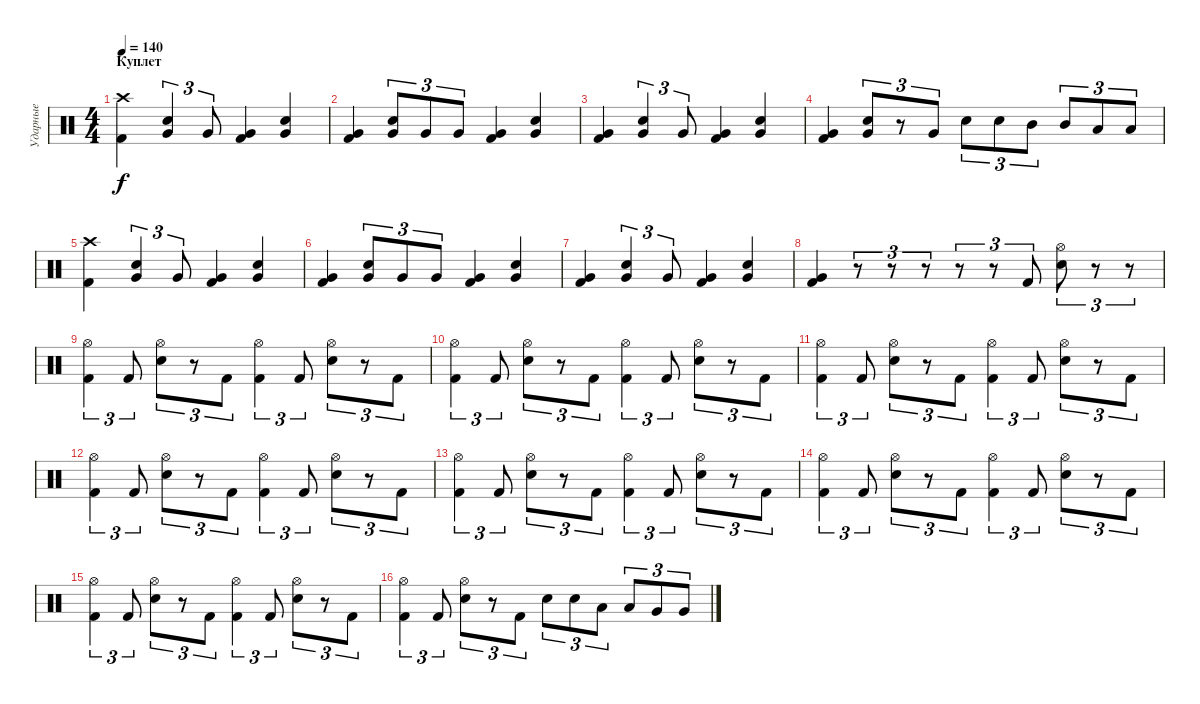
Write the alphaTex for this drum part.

\track ("Ударные" "Ударные") {instrument percussion}
\staff {score}
\articulation defaults
\ts (4 4)
\section ("" "Куплет")
\tempo 140
\clef neutral
\ks c
("Crash high (hit)" "Kick (hit) 2").4{dy f} ("Electric Snare (hit)" "Very Low Tom (hit)").4{tu (3 2)} "Very Low Tom (hit)".8{tu (3 2)} ("Very Low Tom (hit)" "Kick (hit) 2").4 ("Electric Snare (hit)" "Very Low Tom (hit)").4 |
("Very Low Tom (hit)" "Kick (hit) 2").4 ("Electric Snare (hit)" "Very Low Tom (hit)").8{tu (3 2)} "Very Low Tom (hit)".8{tu (3 2)} "Very Low Tom (hit)".8{tu (3 2)} ("Very Low Tom (hit)" "Kick (hit) 2").4 ("Electric Snare (hit)" "Very Low Tom (hit)").4 |
("Very Low Tom (hit)" "Kick (hit) 2").4 ("Electric Snare (hit)" "Very Low Tom (hit)").4{tu (3 2)} "Very Low Tom (hit)".8{tu (3 2)} ("Very Low Tom (hit)" "Kick (hit) 2").4 ("Electric Snare (hit)" "Very Low Tom (hit)").4 |
("Very Low Tom (hit)" "Kick (hit) 2").4 ("Electric Snare (hit)" "Very Low Tom (hit)").8{tu (3 2)} r.8{tu (3 2)} "Very Low Tom (hit)".8{tu (3 2)} "Electric Snare (hit)".8{tu (3 2)} "Electric Snare (hit)".8{tu (3 2)} "Mid Tom (hit)".8{tu (3 2)} "Mid Tom (hit)".8{tu (3 2)} "Low Tom (hit)".8{tu (3 2)} "Low Tom (hit)".8{tu (3 2)} |
("Crash high (hit)" "Kick (hit) 2").4 ("Electric Snare (hit)" "Very Low Tom (hit)").4{tu (3 2)} "Very Low Tom (hit)".8{tu (3 2)} ("Very Low Tom (hit)" "Kick (hit) 2").4 ("Electric Snare (hit)" "Very Low Tom (hit)").4 |
("Very Low Tom (hit)" "Kick (hit) 2").4 ("Electric Snare (hit)" "Very Low Tom (hit)").8{tu (3 2)} "Very Low Tom (hit)".8{tu (3 2)} "Very Low Tom (hit)".8{tu (3 2)} ("Very Low Tom (hit)" "Kick (hit) 2").4 ("Electric Snare (hit)" "Very Low Tom (hit)").4 |
("Very Low Tom (hit)" "Kick (hit) 2").4 ("Electric Snare (hit)" "Very Low Tom (hit)").4{tu (3 2)} "Very Low Tom (hit)".8{tu (3 2)} ("Very Low Tom (hit)" "Kick (hit) 2").4 ("Electric Snare (hit)" "Very Low Tom (hit)").4 |
("Very Low Tom (hit)" "Kick (hit) 2").4 r.8{tu (3 2)} r.8{tu (3 2)} r.8{tu (3 2)} r.8{tu (3 2)} r.8{tu (3 2)} "Kick (hit) 2".8{tu (3 2)} ("Hi-Hat (open)" "Electric Snare (hit)").8{tu (3 2)} r.8{tu (3 2)} r.8{tu (3 2)} |
("Hi-Hat (open)" "Kick (hit) 2").4{tu (3 2)} "Kick (hit) 2".8{tu (3 2)} ("Hi-Hat (open)" "Electric Snare (hit)").8{tu (3 2)} r.8{tu (3 2)} "Kick (hit) 2".8{tu (3 2)} ("Hi-Hat (open)" "Kick (hit) 2").4{tu (3 2)} "Kick (hit) 2".8{tu (3 2)} ("Hi-Hat (open)" "Electric Snare (hit)").8{tu (3 2)} r.8{tu (3 2)} "Kick (hit) 2".8{tu (3 2)} |
("Hi-Hat (open)" "Kick (hit) 2").4{tu (3 2)} "Kick (hit) 2".8{tu (3 2)} ("Hi-Hat (open)" "Electric Snare (hit)").8{tu (3 2)} r.8{tu (3 2)} "Kick (hit) 2".8{tu (3 2)} ("Hi-Hat (open)" "Kick (hit) 2").4{tu (3 2)} "Kick (hit) 2".8{tu (3 2)} ("Hi-Hat (open)" "Electric Snare (hit)").8{tu (3 2)} r.8{tu (3 2)} "Kick (hit) 2".8{tu (3 2)} |
("Hi-Hat (open)" "Kick (hit) 2").4{tu (3 2)} "Kick (hit) 2".8{tu (3 2)} ("Hi-Hat (open)" "Electric Snare (hit)").8{tu (3 2)} r.8{tu (3 2)} "Kick (hit) 2".8{tu (3 2)} ("Hi-Hat (open)" "Kick (hit) 2").4{tu (3 2)} "Kick (hit) 2".8{tu (3 2)} ("Hi-Hat (open)" "Electric Snare (hit)").8{tu (3 2)} r.8{tu (3 2)} "Kick (hit) 2".8{tu (3 2)} |
("Hi-Hat (open)" "Kick (hit) 2").4{tu (3 2)} "Kick (hit) 2".8{tu (3 2)} ("Hi-Hat (open)" "Electric Snare (hit)").8{tu (3 2)} r.8{tu (3 2)} "Kick (hit) 2".8{tu (3 2)} ("Hi-Hat (open)" "Kick (hit) 2").4{tu (3 2)} "Kick (hit) 2".8{tu (3 2)} ("Hi-Hat (open)" "Electric Snare (hit)").8{tu (3 2)} r.8{tu (3 2)} "Kick (hit) 2".8{tu (3 2)} |
("Hi-Hat (open)" "Kick (hit) 2").4{tu (3 2)} "Kick (hit) 2".8{tu (3 2)} ("Hi-Hat (open)" "Electric Snare (hit)").8{tu (3 2)} r.8{tu (3 2)} "Kick (hit) 2".8{tu (3 2)} ("Hi-Hat (open)" "Kick (hit) 2").4{tu (3 2)} "Kick (hit) 2".8{tu (3 2)} ("Hi-Hat (open)" "Electric Snare (hit)").8{tu (3 2)} r.8{tu (3 2)} "Kick (hit) 2".8{tu (3 2)} |
("Hi-Hat (open)" "Kick (hit) 2").4{tu (3 2)} "Kick (hit) 2".8{tu (3 2)} ("Hi-Hat (open)" "Electric Snare (hit)").8{tu (3 2)} r.8{tu (3 2)} "Kick (hit) 2".8{tu (3 2)} ("Hi-Hat (open)" "Kick (hit) 2").4{tu (3 2)} "Kick (hit) 2".8{tu (3 2)} ("Hi-Hat (open)" "Electric Snare (hit)").8{tu (3 2)} r.8{tu (3 2)} "Kick (hit) 2".8{tu (3 2)} |
("Hi-Hat (open)" "Kick (hit) 2").4{tu (3 2)} "Kick (hit) 2".8{tu (3 2)} ("Hi-Hat (open)" "Electric Snare (hit)").8{tu (3 2)} r.8{tu (3 2)} "Kick (hit) 2".8{tu (3 2)} ("Hi-Hat (open)" "Kick (hit) 2").4{tu (3 2)} "Kick (hit) 2".8{tu (3 2)} ("Hi-Hat (open)" "Electric Snare (hit)").8{tu (3 2)} r.8{tu (3 2)} "Kick (hit) 2".8{tu (3 2)} |
("Hi-Hat (open)" "Kick (hit) 2").4{tu (3 2)} "Kick (hit) 2".8{tu (3 2)} ("Hi-Hat (open)" "Electric Snare (hit)").8{tu (3 2)} r.8{tu (3 2)} "Kick (hit) 2".8{tu (3 2)} "Electric Snare (hit)".8{tu (3 2)} "Electric Snare (hit)".8{tu (3 2)} "Low Tom (hit)".8{tu (3 2)} "Low Tom (hit)".8{tu (3 2)} "Very Low Tom (hit)".8{tu (3 2)} "Very Low Tom (hit)".8{tu (3 2)}
